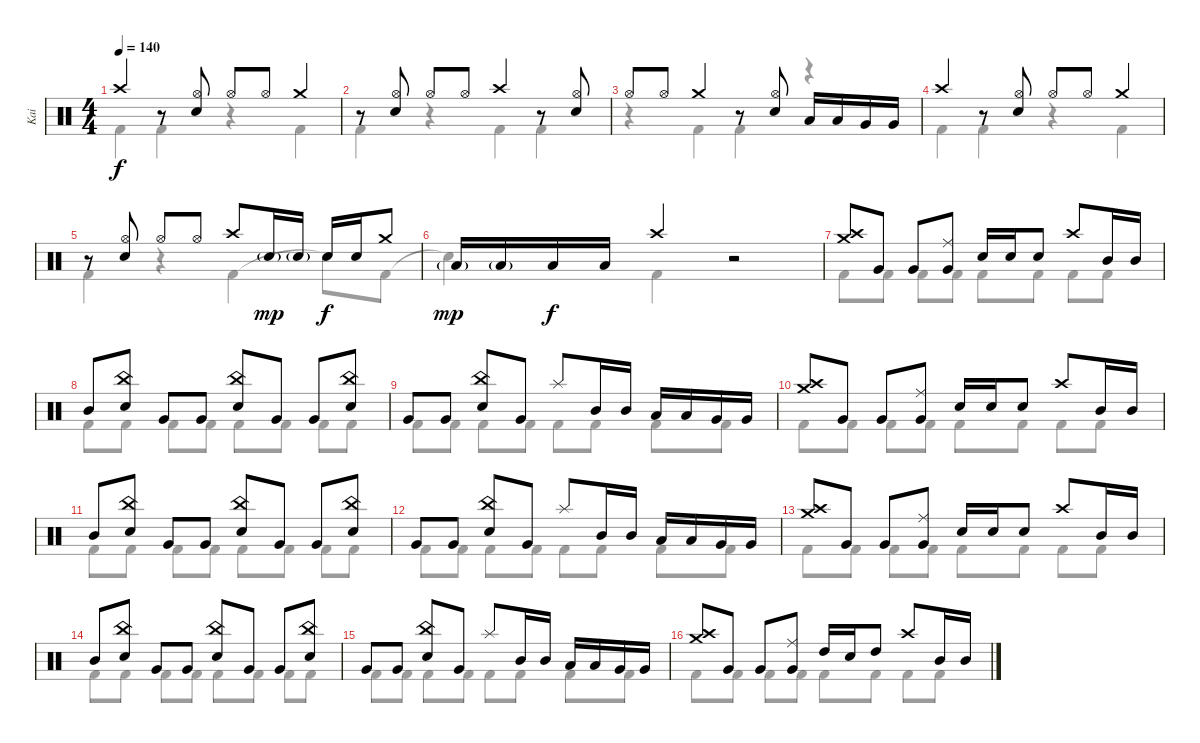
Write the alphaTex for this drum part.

\track ("Kai" "Kai") {instrument percussion}
\staff {score}
\articulation defaults
\voice
\ts (4 4)
\tempo 140
\clef neutral
\ks c "Crash high (hit)".4{dy f}
r.8 ("Hi-Hat (open)" "Snare (hit) 2").8 "Hi-Hat (open)".8 "Hi-Hat (open)".8 "Crash medium (hit)".4 |
r.8 ("Hi-Hat (open)" "Snare (hit) 2").8 "Hi-Hat (open)".8 "Hi-Hat (open)".8 "Crash high (hit)".4 r.8 ("Hi-Hat (open)" "Snare (hit) 2").8 |
"Hi-Hat (open)".8 "Hi-Hat (open)".8 "Crash medium (hit)".4 r.8 ("Hi-Hat (open)" "Snare (hit) 2").8 "Low Tom (hit)".16 "Low Tom (hit)".16 "Very Low Tom (hit)".16 "Very Low Tom (hit)".16 |
"Crash high (hit)".4 r.8 ("Hi-Hat (open)" "Snare (hit) 2").8 "Hi-Hat (open)".8 "Hi-Hat (open)".8 "Crash medium (hit)".4 |
r.8 ("Hi-Hat (open)" "Snare (hit) 2").8 "Hi-Hat (open)".8 "Hi-Hat (open)".8 "Crash high (hit)".8 "Snare (hit) 2"{g}.16{dy mp} "Snare (hit) 2"{g}.16 "Snare (hit) 2".16{dy f} "Snare (hit) 2".16 "Crash medium (hit)".8 |
"Low Tom (hit)"{g}.16{dy mp} "Low Tom (hit)"{g}.16 "Low Tom (hit)".16{dy f} "Low Tom (hit)".16 "Crash high (hit)".4 r.2 |
("Crash high (hit)" "Crash medium (hit)").8 "Very Low Tom (hit)".8 "Very Low Tom (hit)".8 ("Ride (middle)" "Very Low Tom (hit)").8 "Snare (hit) 2".16 "Snare (hit) 2".16 "Snare (hit) 2".8 "Crash high (hit)".8 "Mid Tom (hit)".16 "Mid Tom (hit)".16 |
"Mid Tom (hit)".8 ("China (hit)" "Snare (hit) 2").8 "Very Low Tom (hit)".8 "Very Low Tom (hit)".8 ("China (hit)" "Snare (hit) 2").8 "Very Low Tom (hit)".8 "Very Low Tom (hit)".8 ("China (hit)" "Snare (hit) 2").8 |
"Very Low Tom (hit)".8 "Very Low Tom (hit)".8 ("China (hit)" "Snare (hit) 2").8 "Very Low Tom (hit)".8 "Splash (hit)".8 "Mid Tom (hit)".16 "Mid Tom (hit)".16 "Low Tom (hit)".16 "Low Tom (hit)".16 "Very Low Tom (hit)".16 "Very Low Tom (hit)".16 |
("Crash high (hit)" "Crash medium (hit)").8 "Very Low Tom (hit)".8 "Very Low Tom (hit)".8 ("Ride (middle)" "Very Low Tom (hit)").8 "Snare (hit) 2".16 "Snare (hit) 2".16 "Snare (hit) 2".8 "Crash high (hit)".8 "Mid Tom (hit)".16 "Mid Tom (hit)".16 |
"Mid Tom (hit)".8 ("China (hit)" "Snare (hit) 2").8 "Very Low Tom (hit)".8 "Very Low Tom (hit)".8 ("China (hit)" "Snare (hit) 2").8 "Very Low Tom (hit)".8 "Very Low Tom (hit)".8 ("China (hit)" "Snare (hit) 2").8 |
"Very Low Tom (hit)".8 "Very Low Tom (hit)".8 ("China (hit)" "Snare (hit) 2").8 "Very Low Tom (hit)".8 "Splash (hit)".8 "Mid Tom (hit)".16 "Mid Tom (hit)".16 "Low Tom (hit)".16 "Low Tom (hit)".16 "Very Low Tom (hit)".16 "Very Low Tom (hit)".16 |
("Crash high (hit)" "Crash medium (hit)").8 "Very Low Tom (hit)".8 "Very Low Tom (hit)".8 ("Ride (middle)" "Very Low Tom (hit)").8 "Snare (hit) 2".16 "Snare (hit) 2".16 "Snare (hit) 2".8 "Crash high (hit)".8 "Mid Tom (hit)".16 "Mid Tom (hit)".16 |
"Mid Tom (hit)".8 ("China (hit)" "Snare (hit) 2").8 "Very Low Tom (hit)".8 "Very Low Tom (hit)".8 ("China (hit)" "Snare (hit) 2").8 "Very Low Tom (hit)".8 "Very Low Tom (hit)".8 ("China (hit)" "Snare (hit) 2").8 |
"Very Low Tom (hit)".8 "Very Low Tom (hit)".8 ("China (hit)" "Snare (hit) 2").8 "Very Low Tom (hit)".8 "Splash (hit)".8 "Mid Tom (hit)".16 "Mid Tom (hit)".16 "Low Tom (hit)".16 "Low Tom (hit)".16 "Very Low Tom (hit)".16 "Very Low Tom (hit)".16 |
("Crash high (hit)" "Crash medium (hit)").8 "Very Low Tom (hit)".8 "Very Low Tom (hit)".8 ("Ride (middle)" "Very Low Tom (hit)").8 "High Tom (hit)".16 "Snare (hit) 2".16 "High Tom (hit)".8 "Crash high (hit)".8 "Mid Tom (hit)".16 "Mid Tom (hit)".16
\voice
\clef neutral
\ottava regular
\simile none
\ks c "Kick (hit) 2".4{dy f} "Kick (hit) 2".4
r.4 "Kick (hit) 2".4 |
"Kick (hit) 2".4 r.4 "Kick (hit) 2".4 "Kick (hit) 2".4 |
r.4 "Kick (hit) 2".4 "Kick (hit) 2".4 r.4 |
"Kick (hit) 2".4 "Kick (hit) 2".4 r.4 "Kick (hit) 2".4 |
"Kick (hit) 2".4 r.4 "Kick (hit) 2".4 "Snare (hit)"{t}.8 "Kick (hit) 2".8 |
"Snare (hit)"{t}.4 "Kick (hit) 2".4 r.2 |
"Kick (hit) 2".8 "Kick (hit) 2".8 "Kick (hit) 2".8 "Kick (hit) 2".8 "Kick (hit) 2".8 "Kick (hit) 2".8 "Kick (hit) 2".8 "Kick (hit) 2".8 |
"Kick (hit) 2".8 "Kick (hit) 2".8 "Kick (hit) 2".8 "Kick (hit) 2".8 "Kick (hit) 2".8 "Kick (hit) 2".8 "Kick (hit) 2".8 "Kick (hit) 2".8 |
"Kick (hit) 2".8 "Kick (hit) 2".8 "Kick (hit) 2".8 "Kick (hit) 2".8 "Kick (hit) 2".8 "Kick (hit) 2".8 "Kick (hit) 2".8 "Kick (hit) 2".8 |
"Kick (hit) 2".8 "Kick (hit) 2".8 "Kick (hit) 2".8 "Kick (hit) 2".8 "Kick (hit) 2".8 "Kick (hit) 2".8 "Kick (hit) 2".8 "Kick (hit) 2".8 |
"Kick (hit) 2".8 "Kick (hit) 2".8 "Kick (hit) 2".8 "Kick (hit) 2".8 "Kick (hit) 2".8 "Kick (hit) 2".8 "Kick (hit) 2".8 "Kick (hit) 2".8 |
"Kick (hit) 2".8 "Kick (hit) 2".8 "Kick (hit) 2".8 "Kick (hit) 2".8 "Kick (hit) 2".8 "Kick (hit) 2".8 "Kick (hit) 2".8 "Kick (hit) 2".8 |
"Kick (hit) 2".8 "Kick (hit) 2".8 "Kick (hit) 2".8 "Kick (hit) 2".8 "Kick (hit) 2".8 "Kick (hit) 2".8 "Kick (hit) 2".8 "Kick (hit) 2".8 |
"Kick (hit) 2".8 "Kick (hit) 2".8 "Kick (hit) 2".8 "Kick (hit) 2".8 "Kick (hit) 2".8 "Kick (hit) 2".8 "Kick (hit) 2".8 "Kick (hit) 2".8 |
"Kick (hit) 2".8 "Kick (hit) 2".8 "Kick (hit) 2".8 "Kick (hit) 2".8 "Kick (hit) 2".8 "Kick (hit) 2".8 "Kick (hit) 2".8 "Kick (hit) 2".8 |
"Kick (hit) 2".8 "Kick (hit) 2".8 "Kick (hit) 2".8 "Kick (hit) 2".8 "Kick (hit) 2".8 "Kick (hit) 2".8 "Kick (hit) 2".8 "Kick (hit) 2".8
